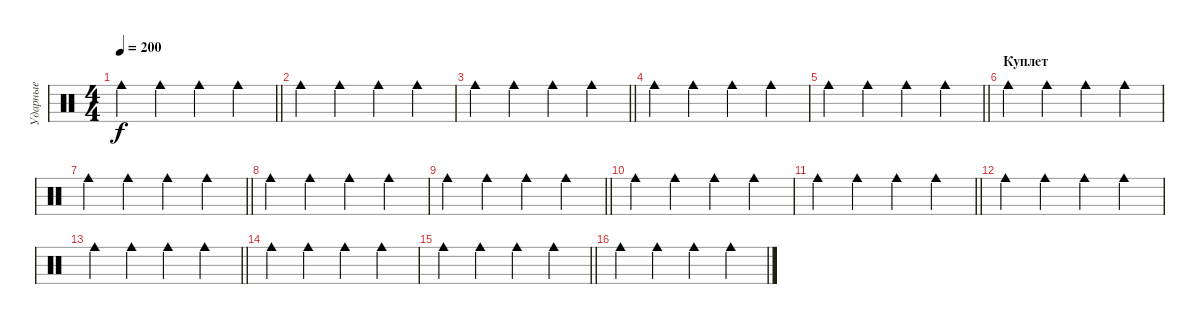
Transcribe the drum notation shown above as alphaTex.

\track ("Ударные" "Ударные") {instrument percussion}
\staff {score}
\articulation defaults
\ts (4 4)
\tempo 200
\clef neutral
\barLineRight lightlight
\ks c "Cowbell medium (hit)".4{dy f} "Cowbell medium (hit)".4 "Cowbell medium (hit)".4 "Cowbell medium (hit)".4
|
"Cowbell medium (hit)".4 "Cowbell medium (hit)".4 "Cowbell medium (hit)".4 "Cowbell medium (hit)".4 |
\barLineRight lightlight "Cowbell medium (hit)".4 "Cowbell medium (hit)".4 "Cowbell medium (hit)".4 "Cowbell medium (hit)".4
|
"Cowbell medium (hit)".4 "Cowbell medium (hit)".4 "Cowbell medium (hit)".4 "Cowbell medium (hit)".4 |
\barLineRight lightlight "Cowbell medium (hit)".4 "Cowbell medium (hit)".4 "Cowbell medium (hit)".4 "Cowbell medium (hit)".4
|
\section ("" "Куплет")
"Cowbell medium (hit)".4 "Cowbell medium (hit)".4 "Cowbell medium (hit)".4 "Cowbell medium (hit)".4 |
\barLineRight lightlight "Cowbell medium (hit)".4 "Cowbell medium (hit)".4 "Cowbell medium (hit)".4 "Cowbell medium (hit)".4
|
"Cowbell medium (hit)".4 "Cowbell medium (hit)".4 "Cowbell medium (hit)".4 "Cowbell medium (hit)".4 |
\barLineRight lightlight "Cowbell medium (hit)".4 "Cowbell medium (hit)".4 "Cowbell medium (hit)".4 "Cowbell medium (hit)".4
|
"Cowbell medium (hit)".4 "Cowbell medium (hit)".4 "Cowbell medium (hit)".4 "Cowbell medium (hit)".4 |
\barLineRight lightlight "Cowbell medium (hit)".4 "Cowbell medium (hit)".4 "Cowbell medium (hit)".4 "Cowbell medium (hit)".4
|
"Cowbell medium (hit)".4 "Cowbell medium (hit)".4 "Cowbell medium (hit)".4 "Cowbell medium (hit)".4 |
\barLineRight lightlight "Cowbell medium (hit)".4 "Cowbell medium (hit)".4 "Cowbell medium (hit)".4 "Cowbell medium (hit)".4
|
"Cowbell medium (hit)".4 "Cowbell medium (hit)".4 "Cowbell medium (hit)".4 "Cowbell medium (hit)".4 |
\barLineRight lightlight "Cowbell medium (hit)".4 "Cowbell medium (hit)".4 "Cowbell medium (hit)".4 "Cowbell medium (hit)".4
|
"Cowbell medium (hit)".4 "Cowbell medium (hit)".4 "Cowbell medium (hit)".4 "Cowbell medium (hit)".4
